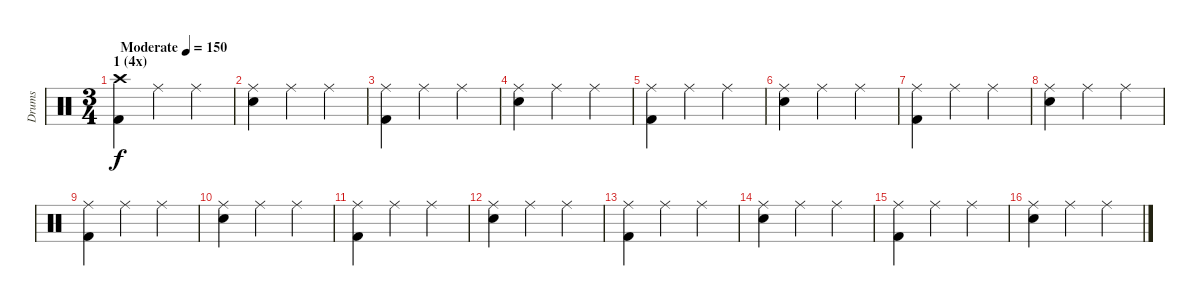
\track ("Drums" "Drums") {instrument percussion}
\staff {score}
\articulation defaults
\ts (3 4)
\section ("" "1 (4x)")
\tempo (150 "Moderate")
\clef neutral
\ks c
("Crash high (hit)" "Kick (hit) 2").4{dy f} "Ride (middle)".4 "Ride (middle)".4 |
("Ride (middle)" "Snare (hit) 2").4 "Ride (middle)".4 "Ride (middle)".4 |
("Ride (middle)" "Kick (hit) 2").4 "Ride (middle)".4 "Ride (middle)".4 |
("Ride (middle)" "Snare (hit) 2").4 "Ride (middle)".4 "Ride (middle)".4 |
("Ride (middle)" "Kick (hit) 2").4 "Ride (middle)".4 "Ride (middle)".4 |
("Ride (middle)" "Snare (hit) 2").4 "Ride (middle)".4 "Ride (middle)".4 |
("Ride (middle)" "Kick (hit) 2").4 "Ride (middle)".4 "Ride (middle)".4 |
("Ride (middle)" "Snare (hit) 2").4 "Ride (middle)".4 "Ride (middle)".4 |
("Ride (middle)" "Kick (hit) 2").4 "Ride (middle)".4 "Ride (middle)".4 |
("Ride (middle)" "Snare (hit) 2").4 "Ride (middle)".4 "Ride (middle)".4 |
("Ride (middle)" "Kick (hit) 2").4 "Ride (middle)".4 "Ride (middle)".4 |
("Ride (middle)" "Snare (hit) 2").4 "Ride (middle)".4 "Ride (middle)".4 |
("Ride (middle)" "Kick (hit) 2").4 "Ride (middle)".4 "Ride (middle)".4 |
("Ride (middle)" "Snare (hit) 2").4 "Ride (middle)".4 "Ride (middle)".4 |
("Ride (middle)" "Kick (hit) 2").4 "Ride (middle)".4 "Ride (middle)".4 |
("Ride (middle)" "Snare (hit) 2").4 "Ride (middle)".4 "Ride (middle)".4
